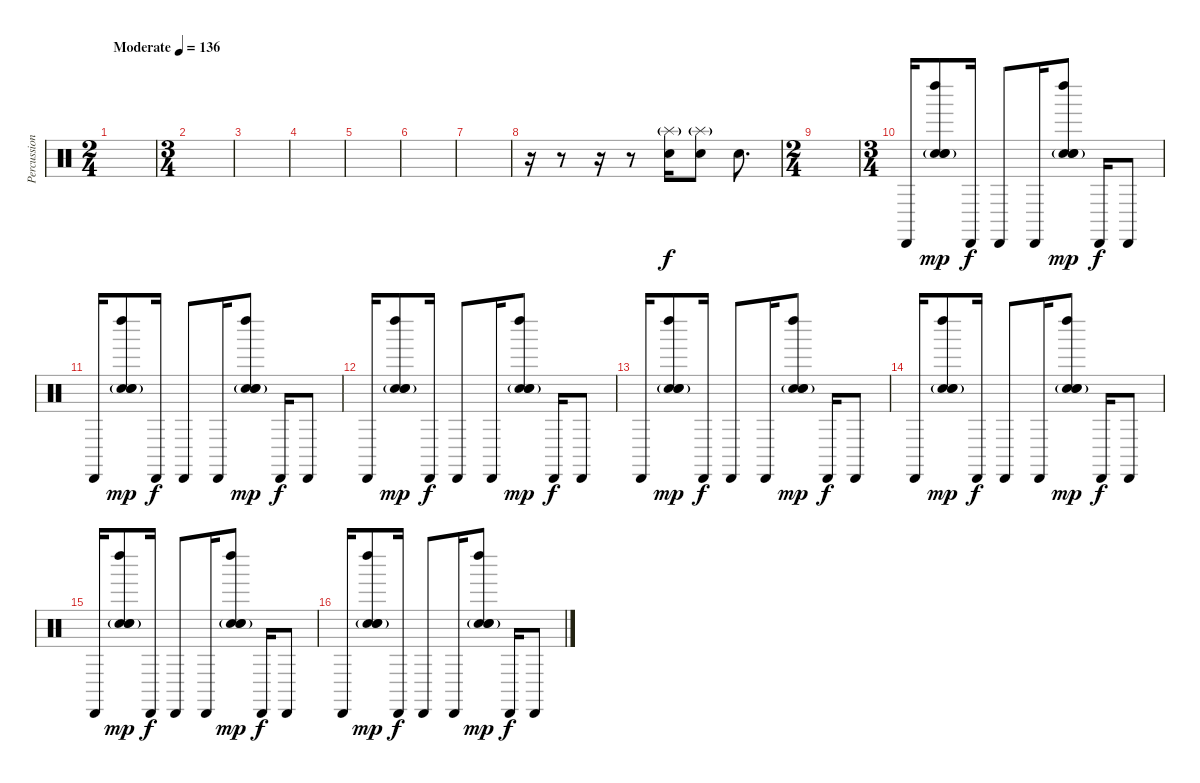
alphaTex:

\track ("Percussions" "Percussion") {instrument percussion}
\staff {score}
\articulation defaults
\ts (2 4)
\tempo (136 "Moderate")
\clef neutral
\ks c
|
\ts (3 4)
|
|
|
|
|
|
r.16 r.8 r.16 r.8 ("Splash (hit)"{g} "Electric Snare (hit)").16 ("Splash (hit)"{g} "Electric Snare (hit)").8 "Snare (hit) 2".8{d dy f} |
\ts (2 4)
|
\ts (3 4)
"Cabasa (hit)".16 ("Left Maraca (hit)" "Snare (hit) 2"{g} "Snare (hit) 2"{g} "Snare (hit) 2"{g}).8{dy mp} "Cabasa (hit)".16{dy f} "Cabasa (hit)".8 "Cabasa (hit)".16 ("Left Maraca (hit)" "Snare (hit) 2"{g} "Snare (hit) 2"{g} "Snare (hit) 2"{g}).8{dy mp} "Cabasa (hit)".16{dy f} "Cabasa (hit)".8 |
"Cabasa (hit)".16 ("Left Maraca (hit)" "Snare (hit) 2"{g} "Snare (hit) 2"{g} "Snare (hit) 2"{g}).8{dy mp} "Cabasa (hit)".16{dy f} "Cabasa (hit)".8 "Cabasa (hit)".16 ("Left Maraca (hit)" "Snare (hit) 2"{g} "Snare (hit) 2"{g} "Snare (hit) 2"{g}).8{dy mp} "Cabasa (hit)".16{dy f} "Cabasa (hit)".8 |
"Cabasa (hit)".16 ("Left Maraca (hit)" "Snare (hit) 2"{g} "Snare (hit) 2"{g} "Snare (hit) 2"{g}).8{dy mp} "Cabasa (hit)".16{dy f} "Cabasa (hit)".8 "Cabasa (hit)".16 ("Left Maraca (hit)" "Snare (hit) 2"{g} "Snare (hit) 2"{g} "Snare (hit) 2"{g}).8{dy mp} "Cabasa (hit)".16{dy f} "Cabasa (hit)".8 |
"Cabasa (hit)".16 ("Left Maraca (hit)" "Snare (hit) 2"{g} "Snare (hit) 2"{g} "Snare (hit) 2"{g}).8{dy mp} "Cabasa (hit)".16{dy f} "Cabasa (hit)".8 "Cabasa (hit)".16 ("Left Maraca (hit)" "Snare (hit) 2"{g} "Snare (hit) 2"{g} "Snare (hit) 2"{g}).8{dy mp} "Cabasa (hit)".16{dy f} "Cabasa (hit)".8 |
"Cabasa (hit)".16 ("Left Maraca (hit)" "Snare (hit) 2"{g} "Snare (hit) 2"{g} "Snare (hit) 2"{g}).8{dy mp} "Cabasa (hit)".16{dy f} "Cabasa (hit)".8 "Cabasa (hit)".16 ("Left Maraca (hit)" "Snare (hit) 2"{g} "Snare (hit) 2"{g} "Snare (hit) 2"{g}).8{dy mp} "Cabasa (hit)".16{dy f} "Cabasa (hit)".8 |
"Cabasa (hit)".16 ("Left Maraca (hit)" "Snare (hit) 2"{g} "Snare (hit) 2"{g} "Snare (hit) 2"{g}).8{dy mp} "Cabasa (hit)".16{dy f} "Cabasa (hit)".8 "Cabasa (hit)".16 ("Left Maraca (hit)" "Snare (hit) 2"{g} "Snare (hit) 2"{g} "Snare (hit) 2"{g}).8{dy mp} "Cabasa (hit)".16{dy f} "Cabasa (hit)".8 |
"Cabasa (hit)".16 ("Left Maraca (hit)" "Snare (hit) 2"{g} "Snare (hit) 2"{g} "Snare (hit) 2"{g}).8{dy mp} "Cabasa (hit)".16{dy f} "Cabasa (hit)".8 "Cabasa (hit)".16 ("Left Maraca (hit)" "Snare (hit) 2"{g} "Snare (hit) 2"{g} "Snare (hit) 2"{g}).8{dy mp} "Cabasa (hit)".16{dy f} "Cabasa (hit)".8
